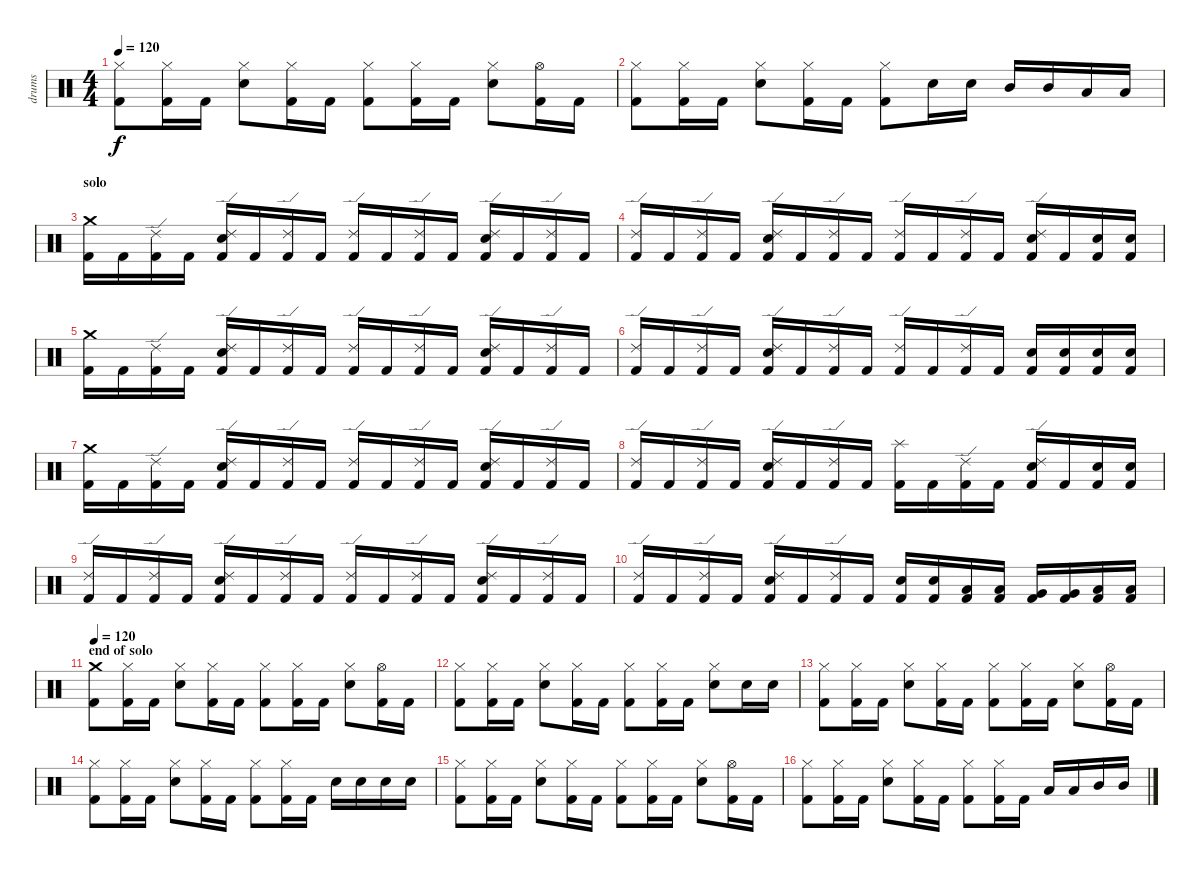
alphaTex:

\track ("drums" "drums") {instrument percussion}
\staff {score}
\articulation defaults
\ts (4 4)
\tempo 120
\clef neutral
\ks c
("Hi-Hat (closed)" "Kick (hit) 2").8{dy f} ("Hi-Hat (closed)" "Kick (hit) 2").16 "Kick (hit) 2".16 ("Hi-Hat (closed)" "Snare (hit) 2").8 ("Hi-Hat (closed)" "Kick (hit) 2").16 "Kick (hit) 2".16 ("Hi-Hat (closed)" "Kick (hit) 2").8 ("Hi-Hat (closed)" "Kick (hit) 2").16 "Kick (hit) 2".16 ("Hi-Hat (closed)" "Snare (hit) 2").8 ("Hi-Hat (open)" "Kick (hit) 2").16 "Kick (hit) 2".16 |
("Hi-Hat (closed)" "Kick (hit) 2").8 ("Hi-Hat (closed)" "Kick (hit) 2").16 "Kick (hit) 2".16 ("Hi-Hat (closed)" "Snare (hit) 2").8 ("Hi-Hat (closed)" "Kick (hit) 2").16 "Kick (hit) 2".16 ("Hi-Hat (closed)" "Kick (hit) 2").8 "Snare (hit) 2".16 "Snare (hit) 2".16 "Mid Tom (hit)".16 "Mid Tom (hit)".16 "Low Tom (hit)".16 "Low Tom (hit)".16 |
\section ("" "solo")
("Crash medium (hit)" "Kick (hit) 2").16 "Kick (hit) 2".16 ("Ride (edge) 2" "Kick (hit) 2").16 "Kick (hit) 2".16 ("Ride (edge) 2" "Snare (hit) 2" "Kick (hit) 2").16 "Kick (hit) 2".16 ("Ride (edge) 2" "Kick (hit) 2").16 "Kick (hit) 2".16 ("Ride (edge) 2" "Kick (hit) 2").16 "Kick (hit) 2".16 ("Ride (edge) 2" "Kick (hit) 2").16 "Kick (hit) 2".16 ("Ride (edge) 2" "Snare (hit) 2" "Kick (hit) 2").16 "Kick (hit) 2".16 ("Ride (edge) 2" "Kick (hit) 2").16 "Kick (hit) 2".16 |
("Ride (edge) 2" "Kick (hit) 2").16 "Kick (hit) 2".16 ("Ride (edge) 2" "Kick (hit) 2").16 "Kick (hit) 2".16 ("Ride (edge) 2" "Snare (hit) 2" "Kick (hit) 2").16 "Kick (hit) 2".16 ("Ride (edge) 2" "Kick (hit) 2").16 "Kick (hit) 2".16 ("Ride (edge) 2" "Kick (hit) 2").16 "Kick (hit) 2".16 ("Ride (edge) 2" "Kick (hit) 2").16 "Kick (hit) 2".16 ("Ride (edge) 2" "Snare (hit) 2" "Kick (hit) 2").16 "Kick (hit) 2".16 ("Snare (hit) 2" "Kick (hit) 2").16 ("Snare (hit) 2" "Kick (hit) 2").16 |
("Crash medium (hit)" "Kick (hit) 2").16 "Kick (hit) 2".16 ("Ride (edge) 2" "Kick (hit) 2").16 "Kick (hit) 2".16 ("Ride (edge) 2" "Snare (hit) 2" "Kick (hit) 2").16 "Kick (hit) 2".16 ("Ride (edge) 2" "Kick (hit) 2").16 "Kick (hit) 2".16 ("Ride (edge) 2" "Kick (hit) 2").16 "Kick (hit) 2".16 ("Ride (edge) 2" "Kick (hit) 2").16 "Kick (hit) 2".16 ("Ride (edge) 2" "Snare (hit) 2" "Kick (hit) 2").16 "Kick (hit) 2".16 ("Ride (edge) 2" "Kick (hit) 2").16 "Kick (hit) 2".16 |
("Ride (edge) 2" "Kick (hit) 2").16 "Kick (hit) 2".16 ("Ride (edge) 2" "Kick (hit) 2").16 "Kick (hit) 2".16 ("Ride (edge) 2" "Snare (hit) 2" "Kick (hit) 2").16 "Kick (hit) 2".16 ("Ride (edge) 2" "Kick (hit) 2").16 "Kick (hit) 2".16 ("Ride (edge) 2" "Kick (hit) 2").16 "Kick (hit) 2".16 ("Ride (edge) 2" "Kick (hit) 2").16 "Kick (hit) 2".16 ("Snare (hit) 2" "Kick (hit) 2").16 ("Snare (hit) 2" "Kick (hit) 2").16 ("Snare (hit) 2" "Kick (hit) 2").16 ("Snare (hit) 2" "Kick (hit) 2").16 |
("Crash medium (hit)" "Kick (hit) 2").16 "Kick (hit) 2".16 ("Ride (edge) 2" "Kick (hit) 2").16 "Kick (hit) 2".16 ("Ride (edge) 2" "Snare (hit) 2" "Kick (hit) 2").16 "Kick (hit) 2".16 ("Ride (edge) 2" "Kick (hit) 2").16 "Kick (hit) 2".16 ("Ride (edge) 2" "Kick (hit) 2").16 "Kick (hit) 2".16 ("Ride (edge) 2" "Kick (hit) 2").16 "Kick (hit) 2".16 ("Ride (edge) 2" "Snare (hit) 2" "Kick (hit) 2").16 "Kick (hit) 2".16 ("Ride (edge) 2" "Kick (hit) 2").16 "Kick (hit) 2".16 |
("Ride (edge) 2" "Kick (hit) 2").16 "Kick (hit) 2".16 ("Ride (edge) 2" "Kick (hit) 2").16 "Kick (hit) 2".16 ("Ride (edge) 2" "Snare (hit) 2" "Kick (hit) 2").16 "Kick (hit) 2".16 ("Ride (edge) 2" "Kick (hit) 2").16 "Kick (hit) 2".16 ("Splash (hit)" "Kick (hit) 2").16 "Kick (hit) 2".16 ("Ride (edge) 2" "Kick (hit) 2").16 "Kick (hit) 2".16 ("Ride (edge) 2" "Snare (hit) 2" "Kick (hit) 2").16 "Kick (hit) 2".16 ("Snare (hit) 2" "Kick (hit) 2").16 ("Snare (hit) 2" "Kick (hit) 2").16 |
("Ride (edge) 2" "Kick (hit) 2").16 "Kick (hit) 2".16 ("Ride (edge) 2" "Kick (hit) 2").16 "Kick (hit) 2".16 ("Ride (edge) 2" "Snare (hit) 2" "Kick (hit) 2").16 "Kick (hit) 2".16 ("Ride (edge) 2" "Kick (hit) 2").16 "Kick (hit) 2".16 ("Ride (edge) 2" "Kick (hit) 2").16 "Kick (hit) 2".16 ("Ride (edge) 2" "Kick (hit) 2").16 "Kick (hit) 2".16 ("Ride (edge) 2" "Snare (hit) 2" "Kick (hit) 2").16 "Kick (hit) 2".16 ("Ride (edge) 2" "Kick (hit) 2").16 "Kick (hit) 2".16 |
("Ride (edge) 2" "Kick (hit) 2").16 "Kick (hit) 2".16 ("Ride (edge) 2" "Kick (hit) 2").16 "Kick (hit) 2".16 ("Ride (edge) 2" "Snare (hit) 2" "Kick (hit) 2").16 "Kick (hit) 2".16 ("Ride (edge) 2" "Kick (hit) 2").16 "Kick (hit) 2".16 ("Snare (hit) 2" "Kick (hit) 2").16 ("Snare (hit) 2" "Kick (hit) 2").16 ("Low Tom (hit)" "Kick (hit) 2").16 ("Low Tom (hit)" "Kick (hit) 2").16 ("Very Low Tom (hit)" "Kick (hit) 2").16 ("Very Low Tom (hit)" "Kick (hit) 2").16 ("Low Floor Tom (hit)" "Kick (hit) 2").16 ("Low Floor Tom (hit)" "Kick (hit) 2").16 |
\section ("" "end of solo")
\tempo 120
("Crash medium (hit)" "Kick (hit) 2").8 ("Hi-Hat (closed)" "Kick (hit) 2").16 "Kick (hit) 2".16 ("Hi-Hat (closed)" "Snare (hit) 2").8 ("Hi-Hat (closed)" "Kick (hit) 2").16 "Kick (hit) 2".16 ("Hi-Hat (closed)" "Kick (hit) 2").8 ("Hi-Hat (closed)" "Kick (hit) 2").16 "Kick (hit) 2".16 ("Hi-Hat (closed)" "Snare (hit) 2").8 ("Hi-Hat (open)" "Kick (hit) 2").16 "Kick (hit) 2".16 |
("Hi-Hat (closed)" "Kick (hit) 2").8 ("Hi-Hat (closed)" "Kick (hit) 2").16 "Kick (hit) 2".16 ("Hi-Hat (closed)" "Snare (hit) 2").8 ("Hi-Hat (closed)" "Kick (hit) 2").16 "Kick (hit) 2".16 ("Hi-Hat (closed)" "Kick (hit) 2").8 ("Hi-Hat (closed)" "Kick (hit) 2").16 "Kick (hit) 2".16 ("Hi-Hat (closed)" "Snare (hit) 2").8 "Snare (hit) 2".16 "Snare (hit) 2".16 |
("Hi-Hat (closed)" "Kick (hit) 2").8 ("Hi-Hat (closed)" "Kick (hit) 2").16 "Kick (hit) 2".16 ("Hi-Hat (closed)" "Snare (hit) 2").8 ("Hi-Hat (closed)" "Kick (hit) 2").16 "Kick (hit) 2".16 ("Hi-Hat (closed)" "Kick (hit) 2").8 ("Hi-Hat (closed)" "Kick (hit) 2").16 "Kick (hit) 2".16 ("Hi-Hat (closed)" "Snare (hit) 2").8 ("Hi-Hat (open)" "Kick (hit) 2").16 "Kick (hit) 2".16 |
("Hi-Hat (closed)" "Kick (hit) 2").8 ("Hi-Hat (closed)" "Kick (hit) 2").16 "Kick (hit) 2".16 ("Hi-Hat (closed)" "Snare (hit) 2").8 ("Hi-Hat (closed)" "Kick (hit) 2").16 "Kick (hit) 2".16 ("Hi-Hat (closed)" "Kick (hit) 2").8 ("Hi-Hat (closed)" "Kick (hit) 2").16 "Kick (hit) 2".16 "Snare (hit) 2".16 "Snare (hit) 2".16 "Snare (hit) 2".16 "Snare (hit) 2".16 |
("Hi-Hat (closed)" "Kick (hit) 2").8 ("Hi-Hat (closed)" "Kick (hit) 2").16 "Kick (hit) 2".16 ("Hi-Hat (closed)" "Snare (hit) 2").8 ("Hi-Hat (closed)" "Kick (hit) 2").16 "Kick (hit) 2".16 ("Hi-Hat (closed)" "Kick (hit) 2").8 ("Hi-Hat (closed)" "Kick (hit) 2").16 "Kick (hit) 2".16 ("Hi-Hat (closed)" "Snare (hit) 2").8 ("Hi-Hat (open)" "Kick (hit) 2").16 "Kick (hit) 2".16 |
("Hi-Hat (closed)" "Kick (hit) 2").8 ("Hi-Hat (closed)" "Kick (hit) 2").16 "Kick (hit) 2".16 ("Hi-Hat (closed)" "Snare (hit) 2").8 ("Hi-Hat (closed)" "Kick (hit) 2").16 "Kick (hit) 2".16 ("Hi-Hat (closed)" "Kick (hit) 2").8 ("Hi-Hat (closed)" "Kick (hit) 2").16 "Kick (hit) 2".16 "Low Tom (hit)".16 "Low Tom (hit)".16 "Mid Tom (hit)".16 "Mid Tom (hit)".16
